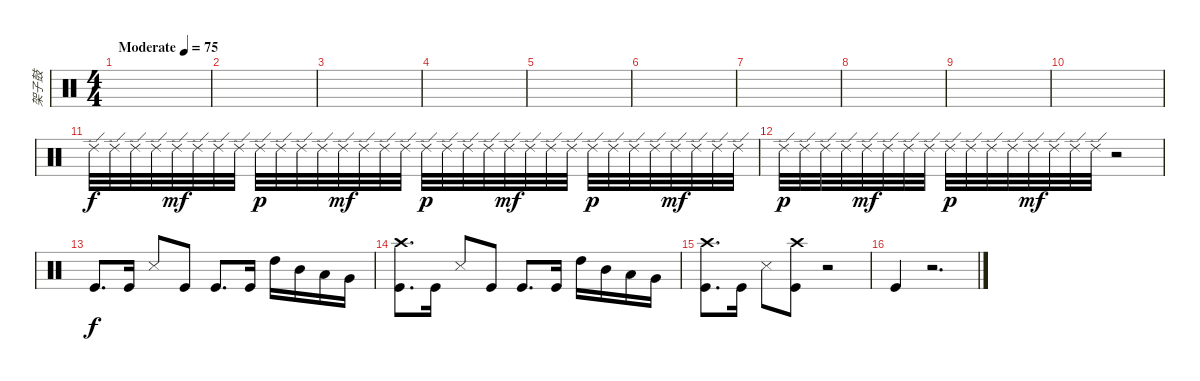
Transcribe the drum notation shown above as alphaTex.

\track ("架子鼓" "架子鼓") {instrument percussion}
\staff {score}
\articulation defaults
\ts (4 4)
\tempo (75 "Moderate")
\clef neutral
\ks c
|
|
|
|
|
|
|
|
|
|
"Ride (edge) 2".32 "Ride (edge) 2".32 "Ride (edge) 2".32 "Ride (edge) 2".32 "Ride (edge) 2".32{dy mf} "Ride (edge) 2".32 "Ride (edge) 2".32 "Ride (edge) 2".32 "Ride (edge) 2".32{dy p} "Ride (edge) 2".32 "Ride (edge) 2".32 "Ride (edge) 2".32 "Ride (edge) 2".32{dy mf} "Ride (edge) 2".32 "Ride (edge) 2".32 "Ride (edge) 2".32 "Ride (edge) 2".32{dy p} "Ride (edge) 2".32 "Ride (edge) 2".32 "Ride (edge) 2".32 "Ride (edge) 2".32{dy mf} "Ride (edge) 2".32 "Ride (edge) 2".32 "Ride (edge) 2".32 "Ride (edge) 2".32{dy p} "Ride (edge) 2".32 "Ride (edge) 2".32 "Ride (edge) 2".32 "Ride (edge) 2".32{dy mf} "Ride (edge) 2".32 "Ride (edge) 2".32 "Ride (edge) 2".32 |
"Ride (edge) 2".32{dy p} "Ride (edge) 2".32 "Ride (edge) 2".32 "Ride (edge) 2".32 "Ride (edge) 2".32{dy mf} "Ride (edge) 2".32 "Ride (edge) 2".32 "Ride (edge) 2".32 "Ride (edge) 2".32{dy p} "Ride (edge) 2".32 "Ride (edge) 2".32 "Ride (edge) 2".32 "Ride (edge) 2".32{dy mf} "Ride (edge) 2".32 "Ride (edge) 2".32 "Ride (edge) 2".32 r.2 |
"Kick (hit)".8{d dy f} "Kick (hit)".16 "Snare (side stick) 3".8 "Kick (hit)".8 "Kick (hit)".8{d} "Kick (hit)".16 "High Tom (hit)".16 "Mid Tom (hit)".16 "Low Tom (hit)".16 "Very Low Tom (hit)".16 |
("Kick (hit)" "Crash high (hit)").8{d} "Kick (hit)".16 "Snare (side stick) 3".8 "Kick (hit)".8 "Kick (hit)".8{d} "Kick (hit)".16 "High Tom (hit)".16 "Mid Tom (hit)".16 "Low Tom (hit)".16 "Very Low Tom (hit)".16 |
("Kick (hit)" "Crash high (hit)").8{d} "Kick (hit)".16 "Snare (side stick) 3".8 ("Kick (hit)" "Crash high (hit)").8 r.2 |
"Kick (hit)".4 r.2{d}
